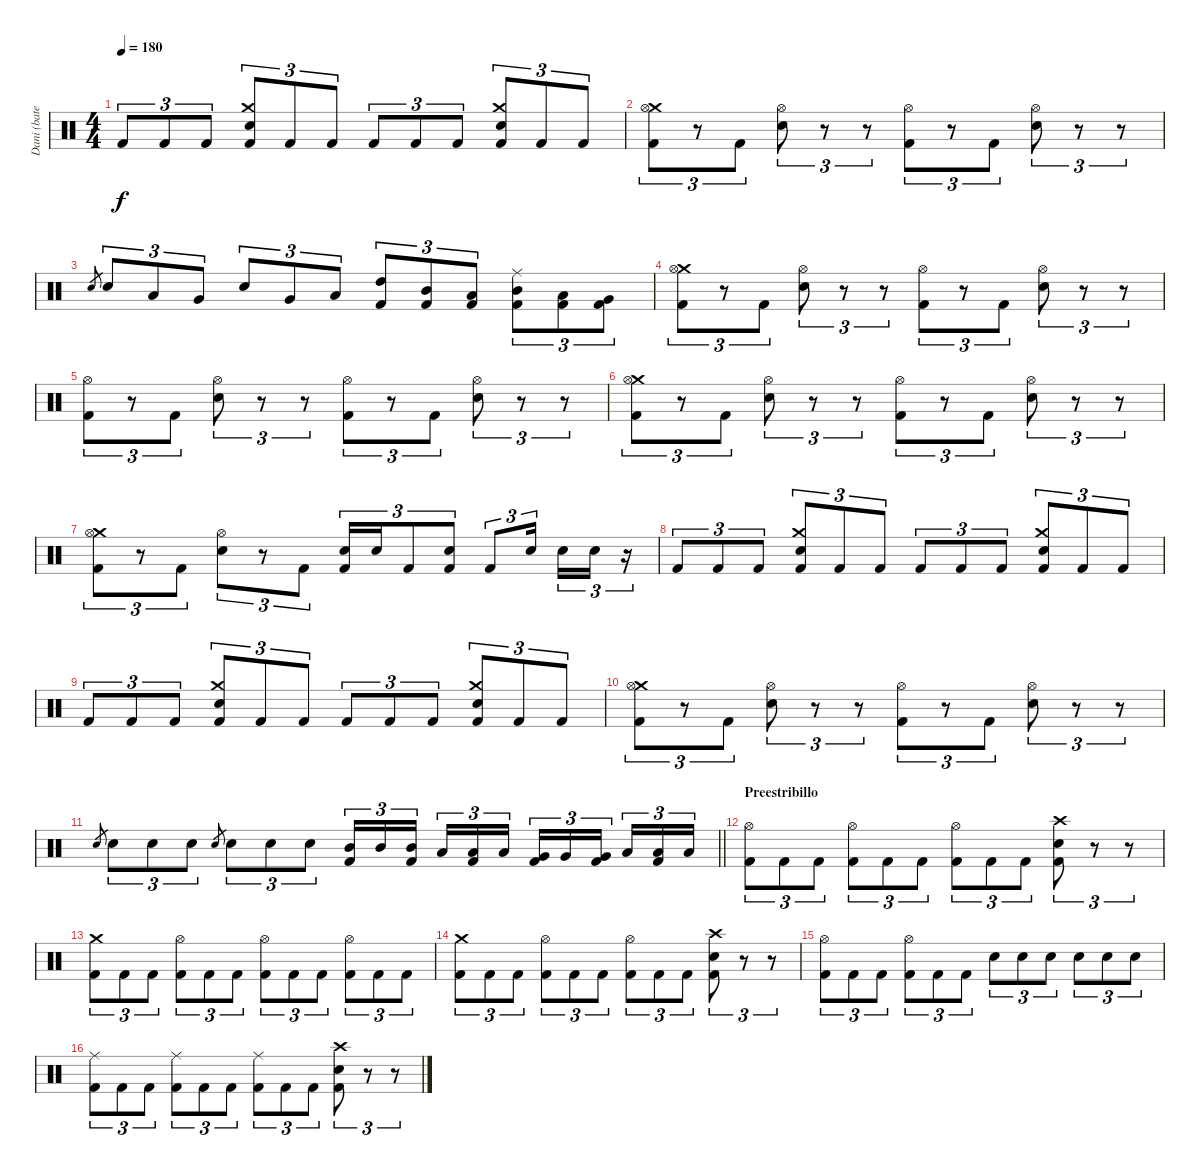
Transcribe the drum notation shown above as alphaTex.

\track ("Dani (bateria)" "Dani (bate") {instrument percussion}
\staff {score}
\articulation defaults
\ts (4 4)
\tempo 180
\clef neutral
\ks c "Kick (hit) 2".8{tu (3 2) dy f} "Kick (hit) 2".8{tu (3 2)} "Kick (hit) 2".8{tu (3 2)}
("Crash medium (hit)" "Electric Snare (hit)" "Kick (hit) 2").8{tu (3 2)} "Kick (hit) 2".8{tu (3 2)} "Kick (hit) 2".8{tu (3 2)} "Kick (hit) 2".8{tu (3 2)} "Kick (hit) 2".8{tu (3 2)} "Kick (hit) 2".8{tu (3 2)} ("Crash medium (hit)" "Electric Snare (hit)" "Kick (hit) 2").8{tu (3 2)} "Kick (hit) 2".8{tu (3 2)} "Kick (hit) 2".8{tu (3 2)} |
("Crash medium (hit)" "Hi-Hat (open)" "Kick (hit) 2").8{tu (3 2)} r.8{tu (3 2)} "Kick (hit) 2".8{tu (3 2)} ("Hi-Hat (open)" "Electric Snare (hit)").8{tu (3 2)} r.8{tu (3 2)} r.8{tu (3 2)} ("Hi-Hat (open)" "Kick (hit) 2").8{tu (3 2)} r.8{tu (3 2)} "Kick (hit) 2".8{tu (3 2)} ("Hi-Hat (open)" "Electric Snare (hit)").8{tu (3 2)} r.8{tu (3 2)} r.8{tu (3 2)} |
"Electric Snare (hit)".8{gr} "Electric Snare (hit)".8{tu (3 2)} "Low Tom (hit)".8{tu (3 2)} "Very Low Tom (hit)".8{tu (3 2)} "Electric Snare (hit)".8{tu (3 2)} "Very Low Tom (hit)".8{tu (3 2)} "Low Floor Tom (hit)".8{tu (3 2)} ("High Tom (hit)" "Kick (hit) 2").8{tu (3 2)} ("Mid Tom (hit)" "Kick (hit) 2").8{tu (3 2)} ("Low Tom (hit)" "Kick (hit) 2").8{tu (3 2)} ("Ride (middle)" "Mid Tom (hit)" "Kick (hit) 2").8{tu (3 2)} ("Low Tom (hit)" "Kick (hit) 2").8{tu (3 2)} ("Very Low Tom (hit)" "Kick (hit) 2").8{tu (3 2)} |
("Crash medium (hit)" "Hi-Hat (open)" "Kick (hit) 2").8{tu (3 2)} r.8{tu (3 2)} "Kick (hit) 2".8{tu (3 2)} ("Hi-Hat (open)" "Electric Snare (hit)").8{tu (3 2)} r.8{tu (3 2)} r.8{tu (3 2)} ("Hi-Hat (open)" "Kick (hit) 2").8{tu (3 2)} r.8{tu (3 2)} "Kick (hit) 2".8{tu (3 2)} ("Hi-Hat (open)" "Electric Snare (hit)").8{tu (3 2)} r.8{tu (3 2)} r.8{tu (3 2)} |
("Hi-Hat (open)" "Kick (hit) 2").8{tu (3 2)} r.8{tu (3 2)} "Kick (hit) 2".8{tu (3 2)} ("Hi-Hat (open)" "Electric Snare (hit)").8{tu (3 2)} r.8{tu (3 2)} r.8{tu (3 2)} ("Hi-Hat (open)" "Kick (hit) 2").8{tu (3 2)} r.8{tu (3 2)} "Kick (hit) 2".8{tu (3 2)} ("Hi-Hat (open)" "Electric Snare (hit)").8{tu (3 2)} r.8{tu (3 2)} r.8{tu (3 2)} |
("Crash medium (hit)" "Hi-Hat (open)" "Kick (hit) 2").8{tu (3 2)} r.8{tu (3 2)} "Kick (hit) 2".8{tu (3 2)} ("Hi-Hat (open)" "Electric Snare (hit)").8{tu (3 2)} r.8{tu (3 2)} r.8{tu (3 2)} ("Hi-Hat (open)" "Kick (hit) 2").8{tu (3 2)} r.8{tu (3 2)} "Kick (hit) 2".8{tu (3 2)} ("Hi-Hat (open)" "Electric Snare (hit)").8{tu (3 2)} r.8{tu (3 2)} r.8{tu (3 2)} |
("Crash medium (hit)" "Hi-Hat (open)" "Kick (hit) 2").8{tu (3 2)} r.8{tu (3 2)} "Kick (hit) 2".8{tu (3 2)} ("Hi-Hat (open)" "Electric Snare (hit)").8{tu (3 2)} r.8{tu (3 2)} "Kick (hit) 2".8{tu (3 2)} ("Electric Snare (hit)" "Kick (hit) 2").16{tu (3 2)} "Electric Snare (hit)".16{tu (3 2)} "Kick (hit) 2".8{tu (3 2)} ("Electric Snare (hit)" "Kick (hit) 2").8{tu (3 2)} "Kick (hit) 2".8{tu (3 2)} "Electric Snare (hit)".16{tu (3 2) beam splitsecondary} "Electric Snare (hit)".16{tu (3 2)} "Electric Snare (hit)".16{tu (3 2)} r.16{tu (3 2)} |
"Kick (hit) 2".8{tu (3 2)} "Kick (hit) 2".8{tu (3 2)} "Kick (hit) 2".8{tu (3 2)} ("Crash medium (hit)" "Electric Snare (hit)" "Kick (hit) 2").8{tu (3 2)} "Kick (hit) 2".8{tu (3 2)} "Kick (hit) 2".8{tu (3 2)} "Kick (hit) 2".8{tu (3 2)} "Kick (hit) 2".8{tu (3 2)} "Kick (hit) 2".8{tu (3 2)} ("Crash medium (hit)" "Electric Snare (hit)" "Kick (hit) 2").8{tu (3 2)} "Kick (hit) 2".8{tu (3 2)} "Kick (hit) 2".8{tu (3 2)} |
"Kick (hit) 2".8{tu (3 2)} "Kick (hit) 2".8{tu (3 2)} "Kick (hit) 2".8{tu (3 2)} ("Crash medium (hit)" "Electric Snare (hit)" "Kick (hit) 2").8{tu (3 2)} "Kick (hit) 2".8{tu (3 2)} "Kick (hit) 2".8{tu (3 2)} "Kick (hit) 2".8{tu (3 2)} "Kick (hit) 2".8{tu (3 2)} "Kick (hit) 2".8{tu (3 2)} ("Crash medium (hit)" "Electric Snare (hit)" "Kick (hit) 2").8{tu (3 2)} "Kick (hit) 2".8{tu (3 2)} "Kick (hit) 2".8{tu (3 2)} |
("Crash medium (hit)" "Hi-Hat (open)" "Kick (hit) 2").8{tu (3 2)} r.8{tu (3 2)} "Kick (hit) 2".8{tu (3 2)} ("Hi-Hat (open)" "Electric Snare (hit)").8{tu (3 2)} r.8{tu (3 2)} r.8{tu (3 2)} ("Hi-Hat (open)" "Kick (hit) 2").8{tu (3 2)} r.8{tu (3 2)} "Kick (hit) 2".8{tu (3 2)} ("Hi-Hat (open)" "Electric Snare (hit)").8{tu (3 2)} r.8{tu (3 2)} r.8{tu (3 2)} |
\barLineRight lightlight "Electric Snare (hit)".8{gr} "Electric Snare (hit)".8{tu (3 2)} "Electric Snare (hit)".8{tu (3 2)} "Electric Snare (hit)".8{tu (3 2)} "Electric Snare (hit)".8{gr} "Electric Snare (hit)".8{tu (3 2)} "Electric Snare (hit)".8{tu (3 2)} "Electric Snare (hit)".8{tu (3 2)}
("Mid Tom (hit)" "Kick (hit) 2").16{tu (3 2)} "Mid Tom (hit)".16{tu (3 2)} ("Mid Tom (hit)" "Kick (hit) 2").16{tu (3 2) beam splitsecondary} "Low Tom (hit)".16{tu (3 2)} ("Low Tom (hit)" "Kick (hit) 2").16{tu (3 2)} "Low Tom (hit)".16{tu (3 2)} ("Very Low Tom (hit)" "Kick (hit) 2").16{tu (3 2)} "Very Low Tom (hit)".16{tu (3 2)} ("Very Low Tom (hit)" "Kick (hit) 2").16{tu (3 2) beam splitsecondary} "Low Floor Tom (hit)".16{tu (3 2)} ("Low Floor Tom (hit)" "Kick (hit) 2").16{tu (3 2)} "Low Floor Tom (hit)".16{tu (3 2)} |
\section ("" "Preestribillo")
("Hi-Hat (open)" "Kick (hit) 2").8{tu (3 2)} "Kick (hit) 2".8{tu (3 2)} "Kick (hit) 2".8{tu (3 2)} ("Hi-Hat (open)" "Kick (hit) 2").8{tu (3 2)} "Kick (hit) 2".8{tu (3 2)} "Kick (hit) 2".8{tu (3 2)} ("Hi-Hat (open)" "Kick (hit) 2").8{tu (3 2)} "Kick (hit) 2".8{tu (3 2)} "Kick (hit) 2".8{tu (3 2)} ("Crash high (hit)" "Electric Snare (hit)" "Kick (hit) 2").8{tu (3 2)} r.8{tu (3 2)} r.8{tu (3 2)} |
("Crash medium (hit)" "Kick (hit) 2").8{tu (3 2)} "Kick (hit) 2".8{tu (3 2)} "Kick (hit) 2".8{tu (3 2)} ("Hi-Hat (open)" "Kick (hit) 2").8{tu (3 2)} "Kick (hit) 2".8{tu (3 2)} "Kick (hit) 2".8{tu (3 2)} ("Hi-Hat (open)" "Kick (hit) 2").8{tu (3 2)} "Kick (hit) 2".8{tu (3 2)} "Kick (hit) 2".8{tu (3 2)} ("Hi-Hat (open)" "Kick (hit) 2").8{tu (3 2)} "Kick (hit) 2".8{tu (3 2)} "Kick (hit) 2".8{tu (3 2)} |
("Crash medium (hit)" "Kick (hit) 2").8{tu (3 2)} "Kick (hit) 2".8{tu (3 2)} "Kick (hit) 2".8{tu (3 2)} ("Hi-Hat (open)" "Kick (hit) 2").8{tu (3 2)} "Kick (hit) 2".8{tu (3 2)} "Kick (hit) 2".8{tu (3 2)} ("Hi-Hat (open)" "Kick (hit) 2").8{tu (3 2)} "Kick (hit) 2".8{tu (3 2)} "Kick (hit) 2".8{tu (3 2)} ("Crash high (hit)" "Electric Snare (hit)" "Kick (hit) 2").8{tu (3 2)} r.8{tu (3 2)} r.8{tu (3 2)} |
("Hi-Hat (open)" "Kick (hit) 2").8{tu (3 2)} "Kick (hit) 2".8{tu (3 2)} "Kick (hit) 2".8{tu (3 2)} ("Hi-Hat (open)" "Kick (hit) 2").8{tu (3 2)} "Kick (hit) 2".8{tu (3 2)} "Kick (hit) 2".8{tu (3 2)} "Electric Snare (hit)".8{tu (3 2)} "Electric Snare (hit)".8{tu (3 2)} "Electric Snare (hit)".8{tu (3 2)} "Electric Snare (hit)".8{tu (3 2)} "Electric Snare (hit)".8{tu (3 2)} "Electric Snare (hit)".8{tu (3 2)} |
("Ride (middle)" "Kick (hit) 2").8{tu (3 2)} "Kick (hit) 2".8{tu (3 2)} "Kick (hit) 2".8{tu (3 2)} ("Ride (middle)" "Kick (hit) 2").8{tu (3 2)} "Kick (hit) 2".8{tu (3 2)} "Kick (hit) 2".8{tu (3 2)} ("Ride (middle)" "Kick (hit) 2").8{tu (3 2)} "Kick (hit) 2".8{tu (3 2)} "Kick (hit) 2".8{tu (3 2)} ("Crash high (hit)" "Electric Snare (hit)" "Kick (hit) 2").8{tu (3 2)} r.8{tu (3 2)} r.8{tu (3 2)}
